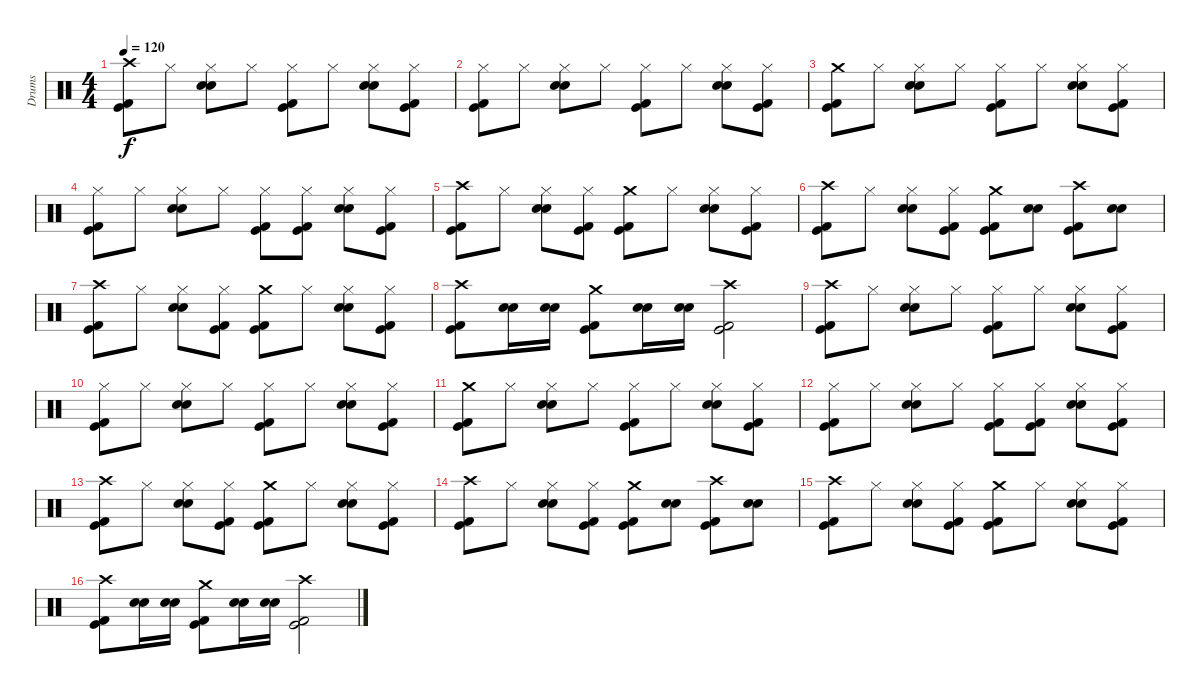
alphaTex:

\track ("Drums" "Drums") {instrument percussion}
\staff {score}
\articulation defaults
\ts (4 4)
\tempo 120
\clef neutral
\ks c
("Crash high (hit)" "Kick (hit) 2" "Kick (hit)").8{dy f} "Hi-Hat (closed)".8 ("Hi-Hat (closed)" "Electric Snare (hit)" "Snare (hit) 2").8 "Hi-Hat (closed)".8 ("Hi-Hat (closed)" "Kick (hit) 2" "Kick (hit)").8 "Hi-Hat (closed)".8 ("Hi-Hat (closed)" "Electric Snare (hit)" "Snare (hit) 2").8 ("Hi-Hat (closed)" "Kick (hit) 2" "Kick (hit)").8 |
("Hi-Hat (closed)" "Kick (hit) 2" "Kick (hit)").8 "Hi-Hat (closed)".8 ("Hi-Hat (closed)" "Electric Snare (hit)" "Snare (hit) 2").8 "Hi-Hat (closed)".8 ("Hi-Hat (closed)" "Kick (hit) 2" "Kick (hit)").8 "Hi-Hat (closed)".8 ("Hi-Hat (closed)" "Electric Snare (hit)" "Snare (hit) 2").8 ("Hi-Hat (closed)" "Kick (hit) 2" "Kick (hit)").8 |
("Crash medium (hit)" "Kick (hit) 2" "Kick (hit)").8 "Hi-Hat (closed)".8 ("Hi-Hat (closed)" "Electric Snare (hit)" "Snare (hit) 2").8 "Hi-Hat (closed)".8 ("Hi-Hat (closed)" "Kick (hit) 2" "Kick (hit)").8 "Hi-Hat (closed)".8 ("Hi-Hat (closed)" "Electric Snare (hit)" "Snare (hit) 2").8 ("Hi-Hat (closed)" "Kick (hit) 2" "Kick (hit)").8 |
("Hi-Hat (closed)" "Kick (hit) 2" "Kick (hit)").8 "Hi-Hat (closed)".8 ("Hi-Hat (closed)" "Electric Snare (hit)" "Snare (hit) 2").8 "Hi-Hat (closed)".8 ("Hi-Hat (closed)" "Kick (hit) 2" "Kick (hit)").8 ("Hi-Hat (closed)" "Kick (hit) 2" "Kick (hit)").8 ("Hi-Hat (closed)" "Electric Snare (hit)" "Snare (hit) 2").8 ("Hi-Hat (closed)" "Kick (hit) 2" "Kick (hit)").8 |
("Crash high (hit)" "Kick (hit) 2" "Kick (hit)").8 "Hi-Hat (closed)".8 ("Hi-Hat (closed)" "Electric Snare (hit)" "Snare (hit) 2").8 ("Hi-Hat (closed)" "Kick (hit) 2" "Kick (hit)").8 ("Crash medium (hit)" "Kick (hit) 2" "Kick (hit)").8 "Hi-Hat (closed)".8 ("Hi-Hat (closed)" "Electric Snare (hit)" "Snare (hit) 2").8 ("Hi-Hat (closed)" "Kick (hit) 2" "Kick (hit)").8 |
("Crash high (hit)" "Kick (hit) 2" "Kick (hit)").8 "Hi-Hat (closed)".8 ("Hi-Hat (closed)" "Electric Snare (hit)" "Snare (hit) 2").8 ("Hi-Hat (closed)" "Kick (hit) 2" "Kick (hit)").8 ("Crash medium (hit)" "Kick (hit) 2" "Kick (hit)").8 ("Electric Snare (hit)" "Snare (hit) 2").8 ("Crash high (hit)" "Kick (hit) 2" "Kick (hit)").8 ("Electric Snare (hit)" "Snare (hit) 2").8 |
("Crash high (hit)" "Kick (hit) 2" "Kick (hit)").8 "Hi-Hat (closed)".8 ("Hi-Hat (closed)" "Electric Snare (hit)" "Snare (hit) 2").8 ("Hi-Hat (closed)" "Kick (hit) 2" "Kick (hit)").8 ("Crash medium (hit)" "Kick (hit) 2" "Kick (hit)").8 "Hi-Hat (closed)".8 ("Hi-Hat (closed)" "Electric Snare (hit)" "Snare (hit) 2").8 ("Hi-Hat (closed)" "Kick (hit) 2" "Kick (hit)").8 |
("Crash high (hit)" "Kick (hit) 2" "Kick (hit)").8 ("Electric Snare (hit)" "Snare (hit) 2").16 ("Electric Snare (hit)" "Snare (hit) 2").16 ("Kick (hit) 2" "Kick (hit)" "Crash medium (hit)").8 ("Electric Snare (hit)" "Snare (hit) 2").16 ("Electric Snare (hit)" "Snare (hit) 2").16 ("Kick (hit) 2" "Kick (hit)" "Crash high (hit)").2 |
("Crash high (hit)" "Kick (hit) 2" "Kick (hit)").8 "Hi-Hat (closed)".8 ("Hi-Hat (closed)" "Electric Snare (hit)" "Snare (hit) 2").8 "Hi-Hat (closed)".8 ("Hi-Hat (closed)" "Kick (hit) 2" "Kick (hit)").8 "Hi-Hat (closed)".8 ("Hi-Hat (closed)" "Electric Snare (hit)" "Snare (hit) 2").8 ("Hi-Hat (closed)" "Kick (hit) 2" "Kick (hit)").8 |
("Hi-Hat (closed)" "Kick (hit) 2" "Kick (hit)").8 "Hi-Hat (closed)".8 ("Hi-Hat (closed)" "Electric Snare (hit)" "Snare (hit) 2").8 "Hi-Hat (closed)".8 ("Hi-Hat (closed)" "Kick (hit) 2" "Kick (hit)").8 "Hi-Hat (closed)".8 ("Hi-Hat (closed)" "Electric Snare (hit)" "Snare (hit) 2").8 ("Hi-Hat (closed)" "Kick (hit) 2" "Kick (hit)").8 |
("Crash medium (hit)" "Kick (hit) 2" "Kick (hit)").8 "Hi-Hat (closed)".8 ("Hi-Hat (closed)" "Electric Snare (hit)" "Snare (hit) 2").8 "Hi-Hat (closed)".8 ("Hi-Hat (closed)" "Kick (hit) 2" "Kick (hit)").8 "Hi-Hat (closed)".8 ("Hi-Hat (closed)" "Electric Snare (hit)" "Snare (hit) 2").8 ("Hi-Hat (closed)" "Kick (hit) 2" "Kick (hit)").8 |
("Hi-Hat (closed)" "Kick (hit) 2" "Kick (hit)").8 "Hi-Hat (closed)".8 ("Hi-Hat (closed)" "Electric Snare (hit)" "Snare (hit) 2").8 "Hi-Hat (closed)".8 ("Hi-Hat (closed)" "Kick (hit) 2" "Kick (hit)").8 ("Hi-Hat (closed)" "Kick (hit) 2" "Kick (hit)").8 ("Hi-Hat (closed)" "Electric Snare (hit)" "Snare (hit) 2").8 ("Hi-Hat (closed)" "Kick (hit) 2" "Kick (hit)").8 |
("Crash high (hit)" "Kick (hit) 2" "Kick (hit)").8 "Hi-Hat (closed)".8 ("Hi-Hat (closed)" "Electric Snare (hit)" "Snare (hit) 2").8 ("Hi-Hat (closed)" "Kick (hit) 2" "Kick (hit)").8 ("Crash medium (hit)" "Kick (hit) 2" "Kick (hit)").8 "Hi-Hat (closed)".8 ("Hi-Hat (closed)" "Electric Snare (hit)" "Snare (hit) 2").8 ("Hi-Hat (closed)" "Kick (hit) 2" "Kick (hit)").8 |
("Crash high (hit)" "Kick (hit) 2" "Kick (hit)").8 "Hi-Hat (closed)".8 ("Hi-Hat (closed)" "Electric Snare (hit)" "Snare (hit) 2").8 ("Hi-Hat (closed)" "Kick (hit) 2" "Kick (hit)").8 ("Crash medium (hit)" "Kick (hit) 2" "Kick (hit)").8 ("Electric Snare (hit)" "Snare (hit) 2").8 ("Crash high (hit)" "Kick (hit) 2" "Kick (hit)").8 ("Electric Snare (hit)" "Snare (hit) 2").8 |
("Crash high (hit)" "Kick (hit) 2" "Kick (hit)").8 "Hi-Hat (closed)".8 ("Hi-Hat (closed)" "Electric Snare (hit)" "Snare (hit) 2").8 ("Hi-Hat (closed)" "Kick (hit) 2" "Kick (hit)").8 ("Crash medium (hit)" "Kick (hit) 2" "Kick (hit)").8 "Hi-Hat (closed)".8 ("Hi-Hat (closed)" "Electric Snare (hit)" "Snare (hit) 2").8 ("Hi-Hat (closed)" "Kick (hit) 2" "Kick (hit)").8 |
("Crash high (hit)" "Kick (hit) 2" "Kick (hit)").8 ("Electric Snare (hit)" "Snare (hit) 2").16 ("Electric Snare (hit)" "Snare (hit) 2").16 ("Kick (hit) 2" "Kick (hit)" "Crash medium (hit)").8 ("Electric Snare (hit)" "Snare (hit) 2").16 ("Electric Snare (hit)" "Snare (hit) 2").16 ("Kick (hit) 2" "Kick (hit)" "Crash high (hit)").2
